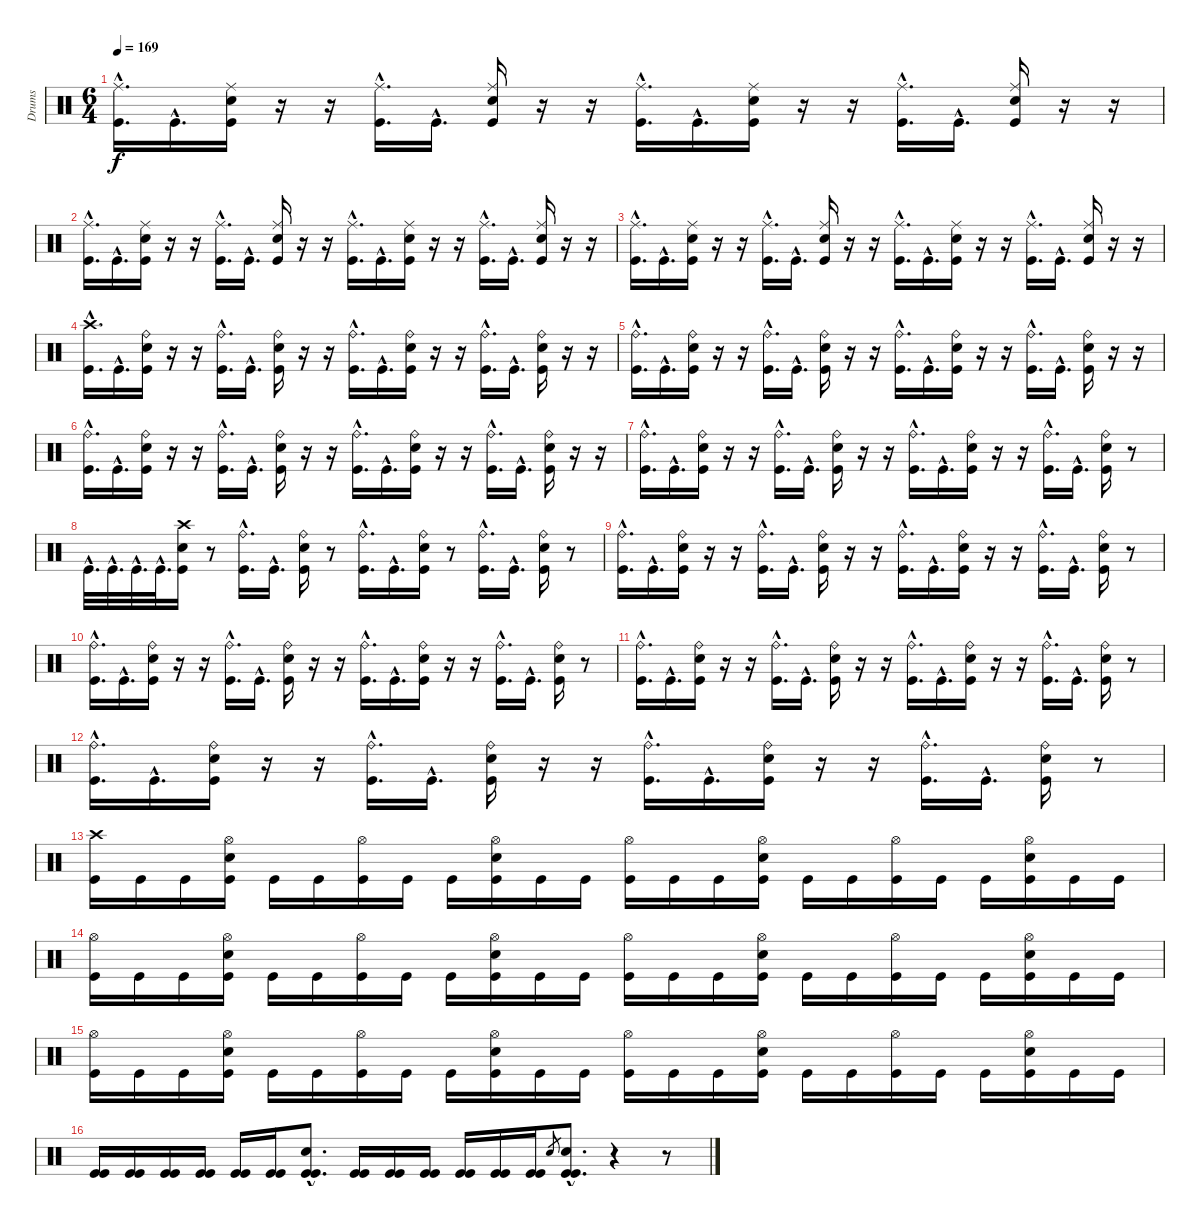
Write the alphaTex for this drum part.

\track ("Drums" "Drums") {instrument percussion}
\staff {score}
\articulation defaults
\ts (6 4)
\tempo 169
\clef neutral
\ks c
("Kick (hit)"{hac} "Ride (middle)"{hac}).16{d dy f} "Kick (hit)"{hac}.16{d} ("Kick (hit)" "Electric Snare (hit)" "Ride (middle)").16 r.16 r.16 ("Kick (hit)"{hac} "Ride (middle)"{hac}).16{d} "Kick (hit)"{hac}.16{d} ("Kick (hit)" "Electric Snare (hit)" "Ride (middle)").16 r.16 r.16 ("Kick (hit)"{hac} "Ride (middle)"{hac}).16{d} "Kick (hit)"{hac}.16{d} ("Kick (hit)" "Electric Snare (hit)" "Ride (middle)").16 r.16 r.16 ("Kick (hit)"{hac} "Ride (middle)"{hac}).16{d} "Kick (hit)"{hac}.16{d} ("Kick (hit)" "Electric Snare (hit)" "Ride (middle)").16 r.16 r.16 |
("Kick (hit)"{hac} "Ride (middle)"{hac}).16{d} "Kick (hit)"{hac}.16{d} ("Kick (hit)" "Electric Snare (hit)" "Ride (middle)").16 r.16 r.16 ("Kick (hit)"{hac} "Ride (middle)"{hac}).16{d} "Kick (hit)"{hac}.16{d} ("Kick (hit)" "Electric Snare (hit)" "Ride (middle)").16 r.16 r.16 ("Kick (hit)"{hac} "Ride (middle)"{hac}).16{d} "Kick (hit)"{hac}.16{d} ("Kick (hit)" "Electric Snare (hit)" "Ride (middle)").16 r.16 r.16 ("Kick (hit)"{hac} "Ride (middle)"{hac}).16{d} "Kick (hit)"{hac}.16{d} ("Kick (hit)" "Electric Snare (hit)" "Ride (middle)").16 r.16 r.16 |
("Kick (hit)"{hac} "Ride (middle)"{hac}).16{d} "Kick (hit)"{hac}.16{d} ("Kick (hit)" "Electric Snare (hit)" "Ride (middle)").16 r.16 r.16 ("Kick (hit)"{hac} "Ride (middle)"{hac}).16{d} "Kick (hit)"{hac}.16{d} ("Kick (hit)" "Electric Snare (hit)" "Ride (middle)").16 r.16 r.16 ("Kick (hit)"{hac} "Ride (middle)"{hac}).16{d} "Kick (hit)"{hac}.16{d} ("Kick (hit)" "Electric Snare (hit)" "Ride (middle)").16 r.16 r.16 ("Kick (hit)"{hac} "Ride (middle)"{hac}).16{d} "Kick (hit)"{hac}.16{d} ("Kick (hit)" "Electric Snare (hit)" "Ride (middle)").16 r.16 r.16 |
("Kick (hit)"{hac} "Crash high (hit)"{hac}).16{d} "Kick (hit)"{hac}.16{d} ("Kick (hit)" "Electric Snare (hit)" "Ride (bell)").16 r.16 r.16 ("Kick (hit)"{hac} "Ride (bell)"{hac}).16{d} "Kick (hit)"{hac}.16{d} ("Kick (hit)" "Electric Snare (hit)" "Ride (bell)").16 r.16 r.16 ("Kick (hit)"{hac} "Ride (bell)"{hac}).16{d} "Kick (hit)"{hac}.16{d} ("Kick (hit)" "Electric Snare (hit)" "Ride (bell)").16 r.16 r.16 ("Kick (hit)"{hac} "Ride (bell)"{hac}).16{d} "Kick (hit)"{hac}.16{d} ("Kick (hit)" "Electric Snare (hit)" "Ride (bell)").16 r.16 r.16 |
("Kick (hit)"{hac} "Ride (bell)"{hac}).16{d} "Kick (hit)"{hac}.16{d} ("Kick (hit)" "Electric Snare (hit)" "Ride (bell)").16 r.16 r.16 ("Kick (hit)"{hac} "Ride (bell)"{hac}).16{d} "Kick (hit)"{hac}.16{d} ("Kick (hit)" "Electric Snare (hit)" "Ride (bell)").16 r.16 r.16 ("Kick (hit)"{hac} "Ride (bell)"{hac}).16{d} "Kick (hit)"{hac}.16{d} ("Kick (hit)" "Electric Snare (hit)" "Ride (bell)").16 r.16 r.16 ("Kick (hit)"{hac} "Ride (bell)"{hac}).16{d} "Kick (hit)"{hac}.16{d} ("Kick (hit)" "Electric Snare (hit)" "Ride (bell)").16 r.16 r.16 |
("Kick (hit)"{hac} "Ride (bell)"{hac}).16{d} "Kick (hit)"{hac}.16{d} ("Kick (hit)" "Electric Snare (hit)" "Ride (bell)").16 r.16 r.16 ("Kick (hit)"{hac} "Ride (bell)"{hac}).16{d} "Kick (hit)"{hac}.16{d} ("Kick (hit)" "Electric Snare (hit)" "Ride (bell)").16 r.16 r.16 ("Kick (hit)"{hac} "Ride (bell)"{hac}).16{d} "Kick (hit)"{hac}.16{d} ("Kick (hit)" "Electric Snare (hit)" "Ride (bell)").16 r.16 r.16 ("Kick (hit)"{hac} "Ride (bell)"{hac}).16{d} "Kick (hit)"{hac}.16{d} ("Kick (hit)" "Electric Snare (hit)" "Ride (bell)").16 r.16 r.16 |
("Kick (hit)"{hac} "Ride (bell)"{hac}).16{d} "Kick (hit)"{hac}.16{d} ("Kick (hit)" "Electric Snare (hit)" "Ride (bell)").16 r.16 r.16 ("Kick (hit)"{hac} "Ride (bell)"{hac}).16{d} "Kick (hit)"{hac}.16{d} ("Kick (hit)" "Electric Snare (hit)" "Ride (bell)").16 r.16 r.16 ("Kick (hit)"{hac} "Ride (bell)"{hac}).16{d} "Kick (hit)"{hac}.16{d} ("Kick (hit)" "Electric Snare (hit)" "Ride (bell)").16 r.16 r.16 ("Kick (hit)"{hac} "Ride (bell)"{hac}).16{d} "Kick (hit)"{hac}.16{d} ("Kick (hit)" "Electric Snare (hit)" "Ride (bell)").16 r.8 |
"Kick (hit)"{hac}.32{d} "Kick (hit)"{hac}.32{d} "Kick (hit)"{hac}.32{d} "Kick (hit)"{hac}.32{d} ("Kick (hit)" "Electric Snare (hit)" "Crash high (hit)").16 r.8 ("Kick (hit)"{hac} "Ride (bell)"{hac}).16{d} "Kick (hit)"{hac}.16{d} ("Kick (hit)" "Electric Snare (hit)" "Ride (bell)").16 r.8 ("Kick (hit)"{hac} "Ride (bell)"{hac}).16{d} "Kick (hit)"{hac}.16{d} ("Kick (hit)" "Electric Snare (hit)" "Ride (bell)").16 r.8 ("Kick (hit)"{hac} "Ride (bell)"{hac}).16{d} "Kick (hit)"{hac}.16{d} ("Kick (hit)" "Electric Snare (hit)" "Ride (bell)").16 r.8 |
("Kick (hit)"{hac} "Ride (bell)"{hac}).16{d} "Kick (hit)"{hac}.16{d} ("Kick (hit)" "Electric Snare (hit)" "Ride (bell)").16 r.16 r.16 ("Kick (hit)"{hac} "Ride (bell)"{hac}).16{d} "Kick (hit)"{hac}.16{d} ("Kick (hit)" "Electric Snare (hit)" "Ride (bell)").16 r.16 r.16 ("Kick (hit)"{hac} "Ride (bell)"{hac}).16{d} "Kick (hit)"{hac}.16{d} ("Kick (hit)" "Electric Snare (hit)" "Ride (bell)").16 r.16 r.16 ("Kick (hit)"{hac} "Ride (bell)"{hac}).16{d} "Kick (hit)"{hac}.16{d} ("Kick (hit)" "Electric Snare (hit)" "Ride (bell)").16 r.8 |
("Kick (hit)"{hac} "Ride (bell)"{hac}).16{d} "Kick (hit)"{hac}.16{d} ("Kick (hit)" "Electric Snare (hit)" "Ride (bell)").16 r.16 r.16 ("Kick (hit)"{hac} "Ride (bell)"{hac}).16{d} "Kick (hit)"{hac}.16{d} ("Kick (hit)" "Electric Snare (hit)" "Ride (bell)").16 r.16 r.16 ("Kick (hit)"{hac} "Ride (bell)"{hac}).16{d} "Kick (hit)"{hac}.16{d} ("Kick (hit)" "Electric Snare (hit)" "Ride (bell)").16 r.16 r.16 ("Kick (hit)"{hac} "Ride (bell)"{hac}).16{d} "Kick (hit)"{hac}.16{d} ("Kick (hit)" "Electric Snare (hit)" "Ride (bell)").16 r.8 |
("Kick (hit)"{hac} "Ride (bell)"{hac}).16{d} "Kick (hit)"{hac}.16{d} ("Kick (hit)" "Electric Snare (hit)" "Ride (bell)").16 r.16 r.16 ("Kick (hit)"{hac} "Ride (bell)"{hac}).16{d} "Kick (hit)"{hac}.16{d} ("Kick (hit)" "Electric Snare (hit)" "Ride (bell)").16 r.16 r.16 ("Kick (hit)"{hac} "Ride (bell)"{hac}).16{d} "Kick (hit)"{hac}.16{d} ("Kick (hit)" "Electric Snare (hit)" "Ride (bell)").16 r.16 r.16 ("Kick (hit)"{hac} "Ride (bell)"{hac}).16{d} "Kick (hit)"{hac}.16{d} ("Kick (hit)" "Electric Snare (hit)" "Ride (bell)").16 r.8 |
("Kick (hit)"{hac} "Ride (bell)"{hac}).16{d} "Kick (hit)"{hac}.16{d} ("Kick (hit)" "Electric Snare (hit)" "Ride (bell)").16 r.16 r.16 ("Kick (hit)"{hac} "Ride (bell)"{hac}).16{d} "Kick (hit)"{hac}.16{d} ("Kick (hit)" "Electric Snare (hit)" "Ride (bell)").16 r.16 r.16 ("Kick (hit)"{hac} "Ride (bell)"{hac}).16{d} "Kick (hit)"{hac}.16{d} ("Kick (hit)" "Electric Snare (hit)" "Ride (bell)").16 r.16 r.16 ("Kick (hit)"{hac} "Ride (bell)"{hac}).16{d} "Kick (hit)"{hac}.16{d} ("Kick (hit)" "Electric Snare (hit)" "Ride (bell)").16 r.8 |
("Kick (hit)" "Crash high (hit)").16 "Kick (hit)".16 "Kick (hit)".16 ("Kick (hit)" "Electric Snare (hit)" "Hi-Hat (open)").16 "Kick (hit)".16 "Kick (hit)".16 ("Kick (hit)" "Hi-Hat (open)").16 "Kick (hit)".16 "Kick (hit)".16 ("Kick (hit)" "Electric Snare (hit)" "Hi-Hat (open)").16 "Kick (hit)".16 "Kick (hit)".16 ("Kick (hit)" "Hi-Hat (open)").16 "Kick (hit)".16 "Kick (hit)".16 ("Kick (hit)" "Electric Snare (hit)" "Hi-Hat (open)").16 "Kick (hit)".16 "Kick (hit)".16 ("Kick (hit)" "Hi-Hat (open)").16 "Kick (hit)".16 "Kick (hit)".16 ("Kick (hit)" "Electric Snare (hit)" "Hi-Hat (open)").16 "Kick (hit)".16 "Kick (hit)".16 |
("Kick (hit)" "Hi-Hat (open)").16 "Kick (hit)".16 "Kick (hit)".16 ("Kick (hit)" "Electric Snare (hit)" "Hi-Hat (open)").16 "Kick (hit)".16 "Kick (hit)".16 ("Kick (hit)" "Hi-Hat (open)").16 "Kick (hit)".16 "Kick (hit)".16 ("Kick (hit)" "Electric Snare (hit)" "Hi-Hat (open)").16 "Kick (hit)".16 "Kick (hit)".16 ("Kick (hit)" "Hi-Hat (open)").16 "Kick (hit)".16 "Kick (hit)".16 ("Kick (hit)" "Electric Snare (hit)" "Hi-Hat (open)").16 "Kick (hit)".16 "Kick (hit)".16 ("Kick (hit)" "Hi-Hat (open)").16 "Kick (hit)".16 "Kick (hit)".16 ("Kick (hit)" "Electric Snare (hit)" "Hi-Hat (open)").16 "Kick (hit)".16 "Kick (hit)".16 |
("Kick (hit)" "Hi-Hat (open)").16 "Kick (hit)".16 "Kick (hit)".16 ("Kick (hit)" "Electric Snare (hit)" "Hi-Hat (open)").16 "Kick (hit)".16 "Kick (hit)".16 ("Kick (hit)" "Hi-Hat (open)").16 "Kick (hit)".16 "Kick (hit)".16 ("Kick (hit)" "Electric Snare (hit)" "Hi-Hat (open)").16 "Kick (hit)".16 "Kick (hit)".16 ("Kick (hit)" "Hi-Hat (open)").16 "Kick (hit)".16 "Kick (hit)".16 ("Kick (hit)" "Electric Snare (hit)" "Hi-Hat (open)").16 "Kick (hit)".16 "Kick (hit)".16 ("Kick (hit)" "Hi-Hat (open)").16 "Kick (hit)".16 "Kick (hit)".16 ("Kick (hit)" "Electric Snare (hit)" "Hi-Hat (open)").16 "Kick (hit)".16 "Kick (hit)".16 |
("Kick (hit)" "Kick (hit)").16 ("Kick (hit)" "Kick (hit)").16 ("Kick (hit)" "Kick (hit)").16 ("Kick (hit)" "Kick (hit)").16 ("Kick (hit)" "Kick (hit)").16 ("Kick (hit)" "Kick (hit)").16 ("Kick (hit)"{hac} "Kick (hit)"{hac} "Electric Snare (hit)"{hac}).8{d} ("Kick (hit)" "Kick (hit)").16 ("Kick (hit)" "Kick (hit)").16 ("Kick (hit)" "Kick (hit)").16 ("Kick (hit)" "Kick (hit)").16 ("Kick (hit)" "Kick (hit)").16 ("Kick (hit)" "Kick (hit)").16 "Electric Snare (hit)".8{gr} ("Kick (hit)"{hac} "Kick (hit)"{hac} "Electric Snare (hit)"{hac}).8{d} r.4 r.8
